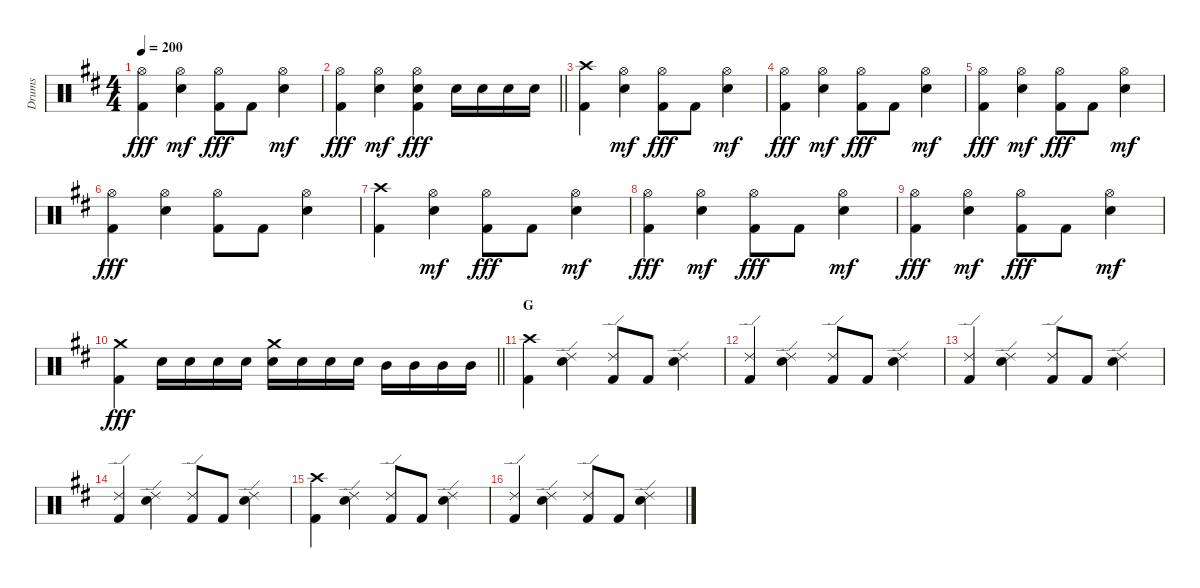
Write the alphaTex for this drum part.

\track ("Drums" "Drums") {instrument percussion}
\staff {score}
\articulation defaults
\ts (4 4)
\tempo 200
\clef neutral
\ks d
("Hi-Hat (open)" "Kick (hit) 2").4{dy fff} ("Hi-Hat (open)" "Snare (hit) 2").4{dy mf} ("Hi-Hat (open)" "Kick (hit) 2").8{dy fff} "Kick (hit) 2".8 ("Hi-Hat (open)" "Snare (hit) 2").4{dy mf} |
\barLineRight lightlight
("Hi-Hat (open)" "Kick (hit) 2").4{dy fff} ("Hi-Hat (open)" "Snare (hit) 2").4{dy mf} ("Hi-Hat (open)" "Snare (hit) 2" "Kick (hit) 2").4{dy fff} "Snare (hit) 2".16 "Snare (hit) 2".16 "Snare (hit) 2".16 "Snare (hit) 2".16 |
("Crash high (hit)" "Kick (hit) 2").4 ("Hi-Hat (open)" "Snare (hit) 2").4{dy mf} ("Hi-Hat (open)" "Kick (hit) 2").8{dy fff} "Kick (hit) 2".8 ("Hi-Hat (open)" "Snare (hit) 2").4{dy mf} |
("Hi-Hat (open)" "Kick (hit) 2").4{dy fff} ("Hi-Hat (open)" "Snare (hit) 2").4{dy mf} ("Hi-Hat (open)" "Kick (hit) 2").8{dy fff} "Kick (hit) 2".8 ("Hi-Hat (open)" "Snare (hit) 2").4{dy mf} |
("Hi-Hat (open)" "Kick (hit) 2").4{dy fff} ("Hi-Hat (open)" "Snare (hit) 2").4{dy mf} ("Hi-Hat (open)" "Kick (hit) 2").8{dy fff} "Kick (hit) 2".8 ("Hi-Hat (open)" "Snare (hit) 2").4{dy mf} |
("Hi-Hat (open)" "Kick (hit) 2").4{dy fff} ("Hi-Hat (open)" "Snare (hit) 2").4 ("Hi-Hat (open)" "Kick (hit) 2").8 "Kick (hit) 2".8 ("Hi-Hat (open)" "Snare (hit) 2").4 |
("Crash high (hit)" "Kick (hit) 2").4 ("Hi-Hat (open)" "Snare (hit) 2").4{dy mf} ("Hi-Hat (open)" "Kick (hit) 2").8{dy fff} "Kick (hit) 2".8 ("Hi-Hat (open)" "Snare (hit) 2").4{dy mf} |
("Hi-Hat (open)" "Kick (hit) 2").4{dy fff} ("Hi-Hat (open)" "Snare (hit) 2").4{dy mf} ("Hi-Hat (open)" "Kick (hit) 2").8{dy fff} "Kick (hit) 2".8 ("Hi-Hat (open)" "Snare (hit) 2").4{dy mf} |
("Hi-Hat (open)" "Kick (hit) 2").4{dy fff} ("Hi-Hat (open)" "Snare (hit) 2").4{dy mf} ("Hi-Hat (open)" "Kick (hit) 2").8{dy fff} "Kick (hit) 2".8 ("Hi-Hat (open)" "Snare (hit) 2").4{dy mf} |
\barLineRight lightlight
("Crash medium (hit)" "Kick (hit) 2").4{dy fff} "Snare (hit) 2".16 "Snare (hit) 2".16 "Snare (hit) 2".16 "Snare (hit) 2".16 ("Crash medium (hit)" "Snare (hit) 2").16 "Snare (hit) 2".16 "Snare (hit) 2".16 "Snare (hit) 2".16 "Mid Tom (hit)".16 "Mid Tom (hit)".16 "Mid Tom (hit)".16 "Mid Tom (hit)".16 |
\section ("" "G")
("Crash high (hit)" "Kick (hit) 2").4 ("Ride (edge) 2" "Snare (hit) 2").4 ("Ride (edge) 2" "Kick (hit) 2").8 "Kick (hit) 2".8 ("Ride (edge) 2" "Snare (hit) 2").4 |
("Ride (edge) 2" "Kick (hit) 2").4 ("Ride (edge) 2" "Snare (hit) 2").4 ("Ride (edge) 2" "Kick (hit) 2").8 "Kick (hit) 2".8 ("Ride (edge) 2" "Snare (hit) 2").4 |
("Ride (edge) 2" "Kick (hit) 2").4 ("Ride (edge) 2" "Snare (hit) 2").4 ("Ride (edge) 2" "Kick (hit) 2").8 "Kick (hit) 2".8 ("Ride (edge) 2" "Snare (hit) 2").4 |
("Ride (edge) 2" "Kick (hit) 2").4 ("Ride (edge) 2" "Snare (hit) 2").4 ("Ride (edge) 2" "Kick (hit) 2").8 "Kick (hit) 2".8 ("Ride (edge) 2" "Snare (hit) 2").4 |
("Crash high (hit)" "Kick (hit) 2").4 ("Ride (edge) 2" "Snare (hit) 2").4 ("Ride (edge) 2" "Kick (hit) 2").8 "Kick (hit) 2".8 ("Ride (edge) 2" "Snare (hit) 2").4 |
("Ride (edge) 2" "Kick (hit) 2").4 ("Ride (edge) 2" "Snare (hit) 2").4 ("Ride (edge) 2" "Kick (hit) 2").8 "Kick (hit) 2".8 ("Ride (edge) 2" "Snare (hit) 2").4
